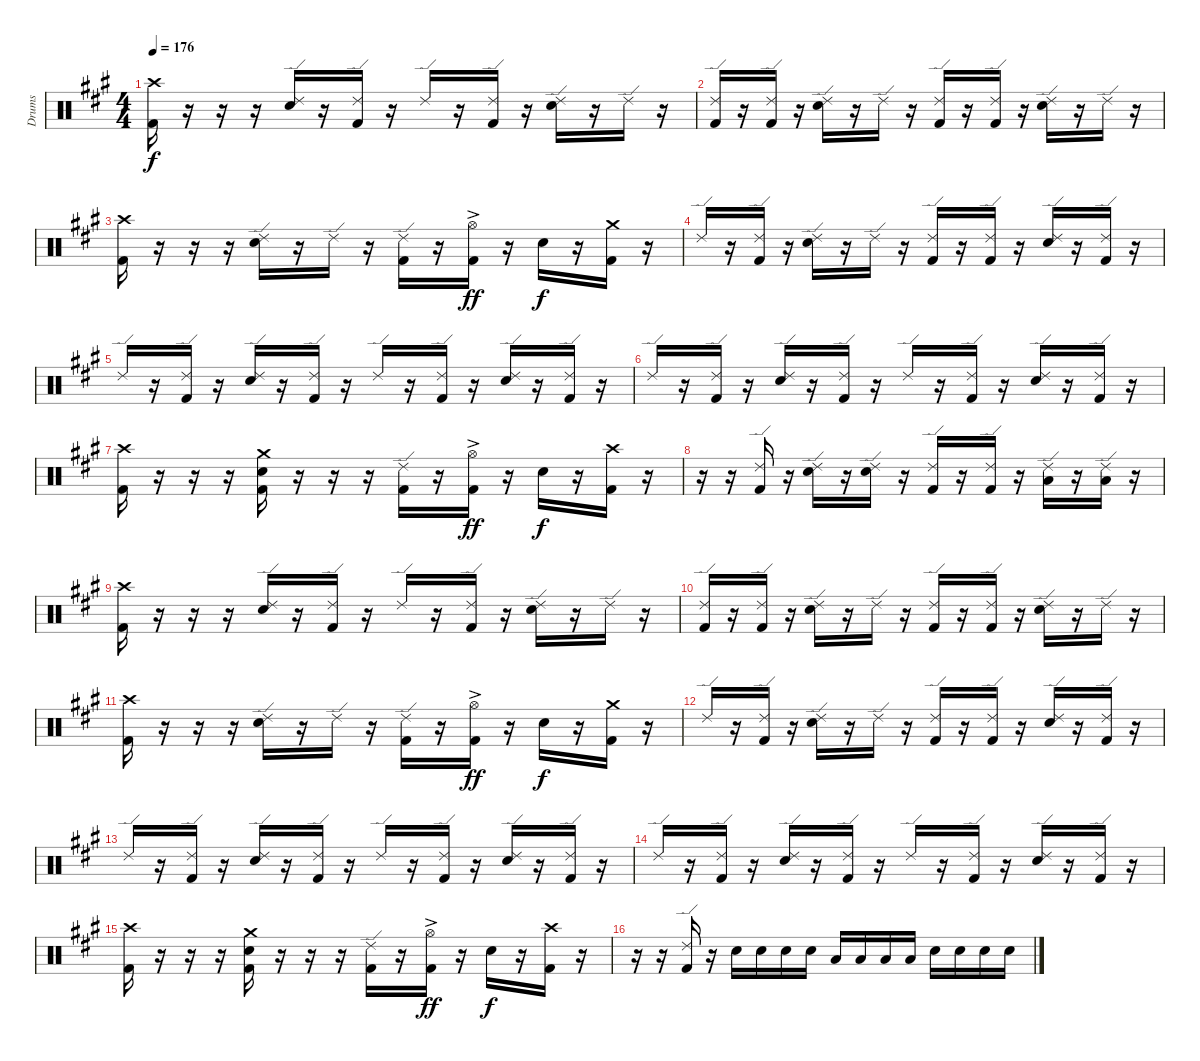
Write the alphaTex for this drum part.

\track ("Drums" "Drums") {instrument percussion}
\staff {score}
\articulation defaults
\ts (4 4)
\tempo 176
\clef neutral
\ks a
("Crash high (hit)" "Kick (hit) 2").16{dy f} r.16 r.16 r.16 ("Ride (edge) 2" "Electric Snare (hit)").16 r.16 ("Ride (edge) 2" "Kick (hit) 2").16 r.16 "Ride (edge) 2".16 r.16 ("Ride (edge) 2" "Kick (hit) 2").16 r.16 ("Ride (edge) 2" "Electric Snare (hit)").16 r.16 "Ride (edge) 2".16 r.16 |
("Ride (edge) 2" "Kick (hit) 2").16 r.16 ("Ride (edge) 2" "Kick (hit) 2").16 r.16 ("Ride (edge) 2" "Electric Snare (hit)").16 r.16 "Ride (edge) 2".16 r.16 ("Ride (edge) 2" "Kick (hit) 2").16 r.16 ("Ride (edge) 2" "Kick (hit) 2").16 r.16 ("Ride (edge) 2" "Electric Snare (hit)").16 r.16 "Ride (edge) 2".16 r.16 |
("Crash high (hit)" "Kick (hit) 2").16 r.16 r.16 r.16 ("Ride (edge) 2" "Electric Snare (hit)").16 r.16 "Ride (edge) 2".16 r.16 ("Ride (edge) 2" "Kick (hit) 2").16 r.16 ("Hi-Hat (open)"{ac} "Kick (hit) 2").16{dy ff} r.16 "Electric Snare (hit)".16{dy f} r.16 ("Crash medium (hit)" "Kick (hit) 2").16 r.16 |
"Ride (edge) 2".16 r.16 ("Ride (edge) 2" "Kick (hit) 2").16 r.16 ("Ride (edge) 2" "Electric Snare (hit)").16 r.16 "Ride (edge) 2".16 r.16 ("Ride (edge) 2" "Kick (hit) 2").16 r.16 ("Ride (edge) 2" "Kick (hit) 2").16 r.16 ("Ride (edge) 2" "Electric Snare (hit)").16 r.16 ("Ride (edge) 2" "Kick (hit) 2").16 r.16 |
"Ride (edge) 2".16 r.16 ("Ride (edge) 2" "Kick (hit) 2").16 r.16 ("Ride (edge) 2" "Electric Snare (hit)").16 r.16 ("Ride (edge) 2" "Kick (hit) 2").16 r.16 "Ride (edge) 2".16 r.16 ("Ride (edge) 2" "Kick (hit) 2").16 r.16 ("Ride (edge) 2" "Electric Snare (hit)").16 r.16 ("Ride (edge) 2" "Kick (hit) 2").16 r.16 |
"Ride (edge) 2".16 r.16 ("Ride (edge) 2" "Kick (hit) 2").16 r.16 ("Ride (edge) 2" "Electric Snare (hit)").16 r.16 ("Ride (edge) 2" "Kick (hit) 2").16 r.16 "Ride (edge) 2".16 r.16 ("Ride (edge) 2" "Kick (hit) 2").16 r.16 ("Ride (edge) 2" "Electric Snare (hit)").16 r.16 ("Ride (edge) 2" "Kick (hit) 2").16 r.16 |
("Crash high (hit)" "Kick (hit) 2").16 r.16 r.16 r.16 ("Crash medium (hit)" "Electric Snare (hit)" "Kick (hit) 2").16 r.16 r.16 r.16 ("Ride (edge) 2" "Kick (hit) 2").16 r.16 ("Hi-Hat (open)"{ac} "Kick (hit) 2").16{dy ff} r.16 "Electric Snare (hit)".16{dy f} r.16 ("Crash high (hit)" "Kick (hit) 2").16 r.16 |
r.16 r.16 ("Ride (edge) 2" "Kick (hit) 2").16 r.16 ("Ride (edge) 2" "Electric Snare (hit)").16 r.16 ("Ride (edge) 2" "Electric Snare (hit)").16 r.16 ("Ride (edge) 2" "Kick (hit) 2").16 r.16 ("Ride (edge) 2" "Kick (hit) 2").16 r.16 ("Ride (edge) 2" "Low Tom (hit)").16 r.16 ("Ride (edge) 2" "Low Tom (hit)").16 r.16 |
("Crash high (hit)" "Kick (hit) 2").16 r.16 r.16 r.16 ("Ride (edge) 2" "Electric Snare (hit)").16 r.16 ("Ride (edge) 2" "Kick (hit) 2").16 r.16 "Ride (edge) 2".16 r.16 ("Ride (edge) 2" "Kick (hit) 2").16 r.16 ("Ride (edge) 2" "Electric Snare (hit)").16 r.16 "Ride (edge) 2".16 r.16 |
("Ride (edge) 2" "Kick (hit) 2").16 r.16 ("Ride (edge) 2" "Kick (hit) 2").16 r.16 ("Ride (edge) 2" "Electric Snare (hit)").16 r.16 "Ride (edge) 2".16 r.16 ("Ride (edge) 2" "Kick (hit) 2").16 r.16 ("Ride (edge) 2" "Kick (hit) 2").16 r.16 ("Ride (edge) 2" "Electric Snare (hit)").16 r.16 "Ride (edge) 2".16 r.16 |
("Crash high (hit)" "Kick (hit) 2").16 r.16 r.16 r.16 ("Ride (edge) 2" "Electric Snare (hit)").16 r.16 "Ride (edge) 2".16 r.16 ("Ride (edge) 2" "Kick (hit) 2").16 r.16 ("Hi-Hat (open)"{ac} "Kick (hit) 2").16{dy ff} r.16 "Electric Snare (hit)".16{dy f} r.16 ("Crash medium (hit)" "Kick (hit) 2").16 r.16 |
"Ride (edge) 2".16 r.16 ("Ride (edge) 2" "Kick (hit) 2").16 r.16 ("Ride (edge) 2" "Electric Snare (hit)").16 r.16 "Ride (edge) 2".16 r.16 ("Ride (edge) 2" "Kick (hit) 2").16 r.16 ("Ride (edge) 2" "Kick (hit) 2").16 r.16 ("Ride (edge) 2" "Electric Snare (hit)").16 r.16 ("Ride (edge) 2" "Kick (hit) 2").16 r.16 |
"Ride (edge) 2".16 r.16 ("Ride (edge) 2" "Kick (hit) 2").16 r.16 ("Ride (edge) 2" "Electric Snare (hit)").16 r.16 ("Ride (edge) 2" "Kick (hit) 2").16 r.16 "Ride (edge) 2".16 r.16 ("Ride (edge) 2" "Kick (hit) 2").16 r.16 ("Ride (edge) 2" "Electric Snare (hit)").16 r.16 ("Ride (edge) 2" "Kick (hit) 2").16 r.16 |
"Ride (edge) 2".16 r.16 ("Ride (edge) 2" "Kick (hit) 2").16 r.16 ("Ride (edge) 2" "Electric Snare (hit)").16 r.16 ("Ride (edge) 2" "Kick (hit) 2").16 r.16 "Ride (edge) 2".16 r.16 ("Ride (edge) 2" "Kick (hit) 2").16 r.16 ("Ride (edge) 2" "Electric Snare (hit)").16 r.16 ("Ride (edge) 2" "Kick (hit) 2").16 r.16 |
("Crash high (hit)" "Kick (hit) 2").16 r.16 r.16 r.16 ("Crash medium (hit)" "Electric Snare (hit)" "Kick (hit) 2").16 r.16 r.16 r.16 ("Ride (edge) 2" "Kick (hit) 2").16 r.16 ("Hi-Hat (open)"{ac} "Kick (hit) 2").16{dy ff} r.16 "Electric Snare (hit)".16{dy f} r.16 ("Crash high (hit)" "Kick (hit) 2").16 r.16 |
r.16 r.16 ("Ride (edge) 2" "Kick (hit) 2").16 r.16 "Electric Snare (hit)".16 "Electric Snare (hit)".16 "Electric Snare (hit)".16 "Electric Snare (hit)".16 "Low Tom (hit)".16 "Low Tom (hit)".16 "Low Tom (hit)".16 "Low Tom (hit)".16 "Electric Snare (hit)".16 "Electric Snare (hit)".16 "Electric Snare (hit)".16 "Electric Snare (hit)".16
